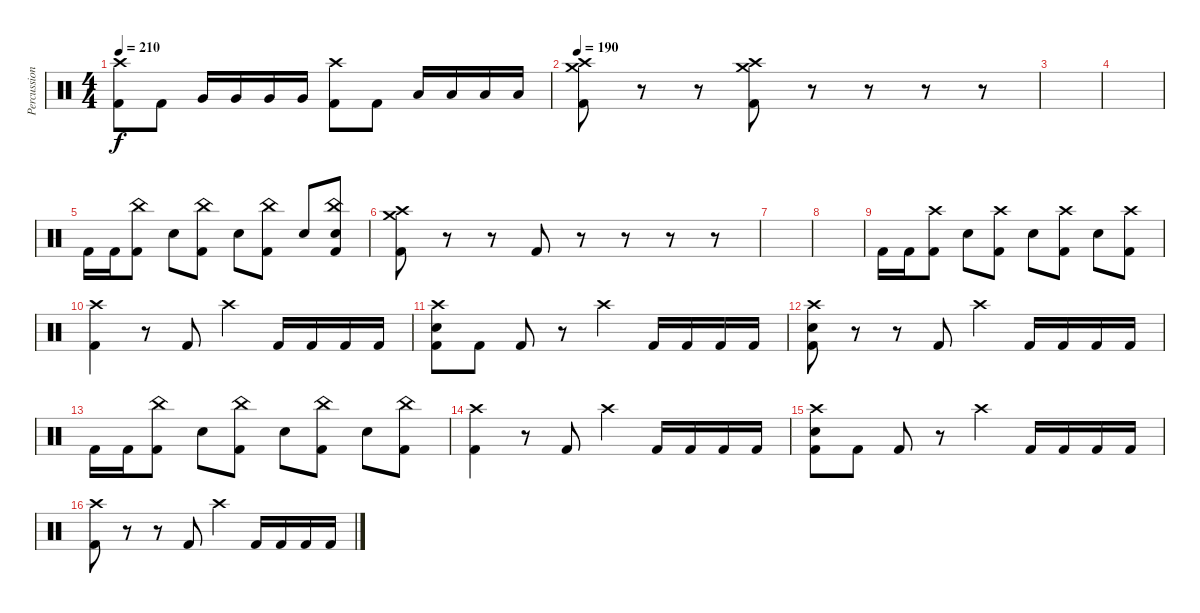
\track ("Percussion" "Percussion") {instrument percussion}
\staff {score}
\articulation defaults
\ts (4 4)
\tempo 210
\clef neutral
\ks c
("Crash high (hit)" "Kick (hit) 2").8{dy f} "Kick (hit) 2".8 "Very Low Tom (hit)".16 "Very Low Tom (hit)".16 "Very Low Tom (hit)".16 "Very Low Tom (hit)".16 ("Crash high (hit)" "Kick (hit) 2").8 "Kick (hit) 2".8 "Low Floor Tom (hit)".16 "Low Floor Tom (hit)".16 "Low Floor Tom (hit)".16 "Low Floor Tom (hit)".16 |
\tempo 190
("Crash medium (hit)" "Crash high (hit)" "Kick (hit) 2").8 r.8 r.8 ("Crash medium (hit)" "Crash high (hit)" "Kick (hit) 2").8 r.8 r.8 r.8 r.8 |
|
|
"Kick (hit) 2".16 "Kick (hit) 2".16 ("China (hit)" "Kick (hit) 2").8 "Snare (hit) 2".8 ("China (hit)" "Kick (hit) 2").8 "Snare (hit) 2".8 ("China (hit)" "Kick (hit) 2").8 "Snare (hit) 2".8 ("China (hit)" "Snare (hit) 2" "Kick (hit) 2").8 |
("Crash medium (hit)" "Crash high (hit)" "Kick (hit) 2").8 r.8 r.8 "Kick (hit) 2".8 r.8 r.8 r.8 r.8 |
|
|
"Kick (hit) 2".16 "Kick (hit) 2".16 ("Crash high (hit)" "Kick (hit) 2").8 "Snare (hit) 2".8 ("Crash high (hit)" "Kick (hit) 2").8 "Snare (hit) 2".8 ("Crash high (hit)" "Kick (hit) 2").8 "Snare (hit) 2".8 ("Crash high (hit)" "Kick (hit) 2").8 |
("Crash high (hit)" "Kick (hit) 2").4 r.8 "Kick (hit) 2".8 "Crash high (hit)".4 "Kick (hit) 2".16 "Kick (hit) 2".16 "Kick (hit) 2".16 "Kick (hit) 2".16 |
("Crash high (hit)" "Snare (hit) 2" "Kick (hit) 2").8 "Kick (hit) 2".8 "Kick (hit) 2".8 r.8 "Crash high (hit)".4 "Kick (hit) 2".16 "Kick (hit) 2".16 "Kick (hit) 2".16 "Kick (hit) 2".16 |
("Crash high (hit)" "Snare (hit) 2" "Kick (hit) 2").8 r.8 r.8 "Kick (hit) 2".8 "Crash high (hit)".4 "Kick (hit) 2".16 "Kick (hit) 2".16 "Kick (hit) 2".16 "Kick (hit) 2".16 |
"Kick (hit) 2".16 "Kick (hit) 2".16 ("China (hit)" "Kick (hit) 2").8 "Snare (hit) 2".8 ("China (hit)" "Kick (hit) 2").8 "Snare (hit) 2".8 ("China (hit)" "Kick (hit) 2").8 "Snare (hit) 2".8 ("China (hit)" "Kick (hit) 2").8 |
("Crash high (hit)" "Kick (hit) 2").4 r.8 "Kick (hit) 2".8 "Crash high (hit)".4 "Kick (hit) 2".16 "Kick (hit) 2".16 "Kick (hit) 2".16 "Kick (hit) 2".16 |
("Crash high (hit)" "Snare (hit) 2" "Kick (hit) 2").8 "Kick (hit) 2".8 "Kick (hit) 2".8 r.8 "Crash high (hit)".4 "Kick (hit) 2".16 "Kick (hit) 2".16 "Kick (hit) 2".16 "Kick (hit) 2".16 |
("Crash high (hit)" "Kick (hit) 2").8 r.8 r.8 "Kick (hit) 2".8 "Crash high (hit)".4 "Kick (hit) 2".16 "Kick (hit) 2".16 "Kick (hit) 2".16 "Kick (hit) 2".16
